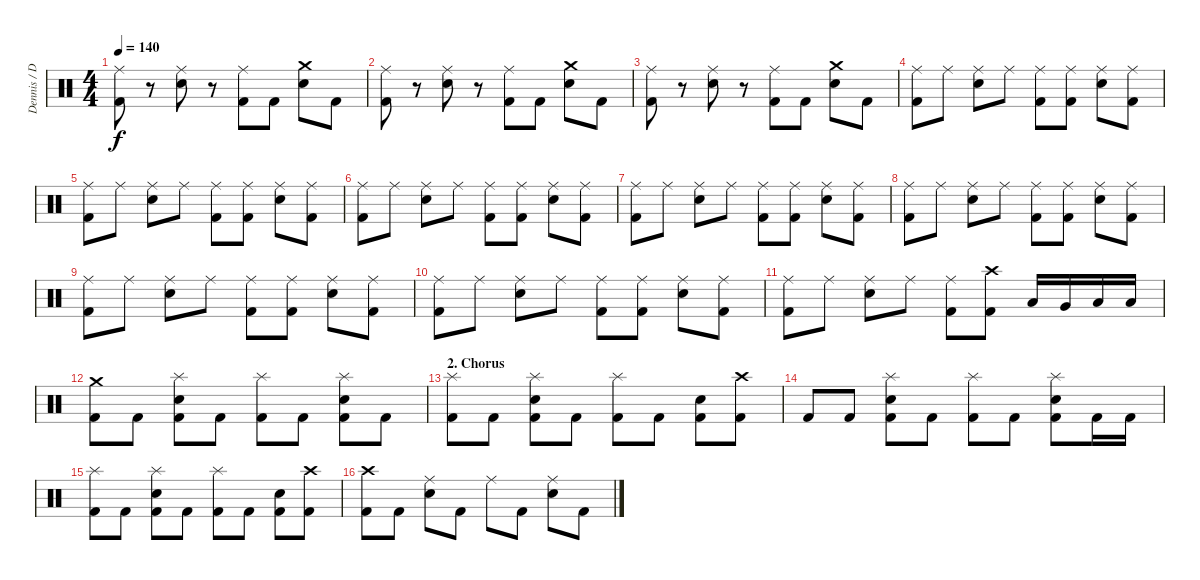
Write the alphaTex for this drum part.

\track ("Dennis / Drums" "Dennis / D") {instrument percussion}
\staff {score}
\articulation defaults
\ts (4 4)
\tempo 140
\clef neutral
\ks c
("Ride (middle)" "Kick (hit) 2").8{dy f} r.8 ("Ride (middle)" "Electric Snare (hit)").8 r.8 ("Ride (middle)" "Kick (hit) 2").8 "Kick (hit) 2".8 ("Crash medium (hit)" "Electric Snare (hit)").8 "Kick (hit) 2".8 |
("Ride (middle)" "Kick (hit) 2").8 r.8 ("Ride (middle)" "Electric Snare (hit)").8 r.8 ("Ride (middle)" "Kick (hit) 2").8 "Kick (hit) 2".8 ("Crash medium (hit)" "Electric Snare (hit)").8 "Kick (hit) 2".8 |
("Ride (middle)" "Kick (hit) 2").8 r.8 ("Ride (middle)" "Electric Snare (hit)").8 r.8 ("Ride (middle)" "Kick (hit) 2").8 "Kick (hit) 2".8 ("Crash medium (hit)" "Electric Snare (hit)").8 "Kick (hit) 2".8 |
("Ride (middle)" "Kick (hit) 2").8 "Ride (middle)".8 ("Ride (middle)" "Electric Snare (hit)").8 "Ride (middle)".8 ("Ride (middle)" "Kick (hit) 2").8 ("Ride (middle)" "Kick (hit) 2").8 ("Ride (middle)" "Electric Snare (hit)").8 ("Ride (middle)" "Kick (hit) 2").8 |
("Ride (middle)" "Kick (hit) 2").8 "Ride (middle)".8 ("Ride (middle)" "Electric Snare (hit)").8 "Ride (middle)".8 ("Ride (middle)" "Kick (hit) 2").8 ("Ride (middle)" "Kick (hit) 2").8 ("Ride (middle)" "Electric Snare (hit)").8 ("Ride (middle)" "Kick (hit) 2").8 |
("Ride (middle)" "Kick (hit) 2").8 "Ride (middle)".8 ("Ride (middle)" "Electric Snare (hit)").8 "Ride (middle)".8 ("Ride (middle)" "Kick (hit) 2").8 ("Ride (middle)" "Kick (hit) 2").8 ("Ride (middle)" "Electric Snare (hit)").8 ("Ride (middle)" "Kick (hit) 2").8 |
("Ride (middle)" "Kick (hit) 2").8 "Ride (middle)".8 ("Ride (middle)" "Electric Snare (hit)").8 "Ride (middle)".8 ("Ride (middle)" "Kick (hit) 2").8 ("Ride (middle)" "Kick (hit) 2").8 ("Ride (middle)" "Electric Snare (hit)").8 ("Ride (middle)" "Kick (hit) 2").8 |
("Ride (middle)" "Kick (hit) 2").8 "Ride (middle)".8 ("Ride (middle)" "Electric Snare (hit)").8 "Ride (middle)".8 ("Ride (middle)" "Kick (hit) 2").8 ("Ride (middle)" "Kick (hit) 2").8 ("Ride (middle)" "Electric Snare (hit)").8 ("Ride (middle)" "Kick (hit) 2").8 |
("Ride (middle)" "Kick (hit) 2").8 "Ride (middle)".8 ("Ride (middle)" "Electric Snare (hit)").8 "Ride (middle)".8 ("Ride (middle)" "Kick (hit) 2").8 ("Ride (middle)" "Kick (hit) 2").8 ("Ride (middle)" "Electric Snare (hit)").8 ("Ride (middle)" "Kick (hit) 2").8 |
("Ride (middle)" "Kick (hit) 2").8 "Ride (middle)".8 ("Ride (middle)" "Electric Snare (hit)").8 "Ride (middle)".8 ("Ride (middle)" "Kick (hit) 2").8 ("Ride (middle)" "Kick (hit) 2").8 ("Ride (middle)" "Electric Snare (hit)").8 ("Ride (middle)" "Kick (hit) 2").8 |
("Ride (middle)" "Kick (hit) 2").8 "Ride (middle)".8 ("Ride (middle)" "Electric Snare (hit)").8 "Ride (middle)".8 ("Ride (middle)" "Kick (hit) 2").8 ("Crash high (hit)" "Kick (hit) 2").8 "Low Tom (hit)".16 "Very Low Tom (hit)".16 "Low Tom (hit)".16 "Low Floor Tom (hit)".16 |
("Crash medium (hit)" "Kick (hit) 2").8 "Kick (hit) 2".8 ("Splash (hit)" "Electric Snare (hit)" "Kick (hit) 2").8 "Kick (hit) 2".8 ("Splash (hit)" "Kick (hit) 2").8 "Kick (hit) 2".8 ("Splash (hit)" "Electric Snare (hit)" "Kick (hit) 2").8 "Kick (hit) 2".8 |
\section ("" "2. Chorus")
("Splash (hit)" "Kick (hit) 2").8 "Kick (hit) 2".8 ("Splash (hit)" "Electric Snare (hit)" "Kick (hit) 2").8 "Kick (hit) 2".8 ("Splash (hit)" "Kick (hit) 2").8 "Kick (hit) 2".8 ("Electric Snare (hit)" "Kick (hit) 2").8 ("Crash high (hit)" "Kick (hit) 2").8 |
"Kick (hit) 2".8 "Kick (hit) 2".8 ("Splash (hit)" "Electric Snare (hit)" "Kick (hit) 2").8 "Kick (hit) 2".8 ("Splash (hit)" "Kick (hit) 2").8 "Kick (hit) 2".8 ("Splash (hit)" "Electric Snare (hit)" "Kick (hit) 2").8 "Kick (hit) 2".16 "Kick (hit) 2".16 |
("Splash (hit)" "Kick (hit) 2").8 "Kick (hit) 2".8 ("Splash (hit)" "Electric Snare (hit)" "Kick (hit) 2").8 "Kick (hit) 2".8 ("Splash (hit)" "Kick (hit) 2").8 "Kick (hit) 2".8 ("Electric Snare (hit)" "Kick (hit) 2").8 ("Crash high (hit)" "Kick (hit) 2").8 |
("Crash high (hit)" "Kick (hit) 2").8 "Kick (hit) 2".8 ("Ride (middle)" "Electric Snare (hit)").8 "Kick (hit) 2".8 "Ride (middle)".8 "Kick (hit) 2".8 ("Ride (middle)" "Electric Snare (hit)").8 "Kick (hit) 2".8
